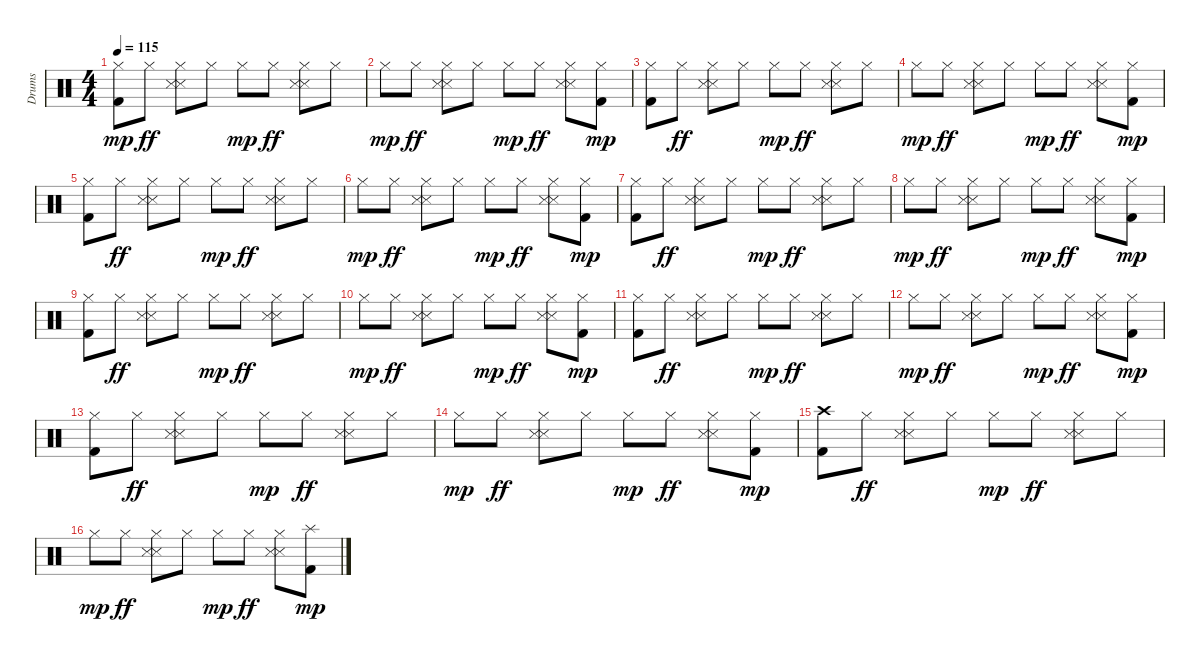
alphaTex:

\track ("Drums" "Drums") {instrument percussion}
\staff {score}
\articulation defaults
\ts (4 4)
\tempo 115
\clef neutral
\ks c
("Hi-Hat (closed)" "Kick (hit) 2").8{dy mp} "Hi-Hat (closed)".8{dy ff} ("Hi-Hat (closed)" "Snare (side stick) 3" "Snare (side stick) 3").8 "Hi-Hat (closed)".8 "Hi-Hat (closed)".8{dy mp} "Hi-Hat (closed)".8{dy ff} ("Hi-Hat (closed)" "Snare (side stick) 3" "Snare (side stick) 3").8 "Hi-Hat (closed)".8 |
"Hi-Hat (closed)".8{dy mp} "Hi-Hat (closed)".8{dy ff} ("Hi-Hat (closed)" "Snare (side stick) 3" "Snare (side stick) 3").8 "Hi-Hat (closed)".8 "Hi-Hat (closed)".8{dy mp} "Hi-Hat (closed)".8{dy ff} ("Hi-Hat (closed)" "Snare (side stick) 3" "Snare (side stick) 3").8 ("Hi-Hat (closed)" "Kick (hit) 2").8{dy mp} |
("Hi-Hat (closed)" "Kick (hit) 2").8 "Hi-Hat (closed)".8{dy ff} ("Hi-Hat (closed)" "Snare (side stick) 3" "Snare (side stick) 3").8 "Hi-Hat (closed)".8 "Hi-Hat (closed)".8{dy mp} "Hi-Hat (closed)".8{dy ff} ("Hi-Hat (closed)" "Snare (side stick) 3" "Snare (side stick) 3").8 "Hi-Hat (closed)".8 |
"Hi-Hat (closed)".8{dy mp} "Hi-Hat (closed)".8{dy ff} ("Hi-Hat (closed)" "Snare (side stick) 3" "Snare (side stick) 3").8 "Hi-Hat (closed)".8 "Hi-Hat (closed)".8{dy mp} "Hi-Hat (closed)".8{dy ff} ("Hi-Hat (closed)" "Snare (side stick) 3" "Snare (side stick) 3").8 ("Hi-Hat (closed)" "Kick (hit) 2").8{dy mp} |
("Hi-Hat (closed)" "Kick (hit) 2").8 "Hi-Hat (closed)".8{dy ff} ("Hi-Hat (closed)" "Snare (side stick) 3" "Snare (side stick) 3").8 "Hi-Hat (closed)".8 "Hi-Hat (closed)".8{dy mp} "Hi-Hat (closed)".8{dy ff} ("Hi-Hat (closed)" "Snare (side stick) 3" "Snare (side stick) 3").8 "Hi-Hat (closed)".8 |
"Hi-Hat (closed)".8{dy mp} "Hi-Hat (closed)".8{dy ff} ("Hi-Hat (closed)" "Snare (side stick) 3" "Snare (side stick) 3").8 "Hi-Hat (closed)".8 "Hi-Hat (closed)".8{dy mp} "Hi-Hat (closed)".8{dy ff} ("Hi-Hat (closed)" "Snare (side stick) 3" "Snare (side stick) 3").8 ("Hi-Hat (closed)" "Kick (hit) 2").8{dy mp} |
("Hi-Hat (closed)" "Kick (hit) 2").8 "Hi-Hat (closed)".8{dy ff} ("Hi-Hat (closed)" "Snare (side stick) 3" "Snare (side stick) 3").8 "Hi-Hat (closed)".8 "Hi-Hat (closed)".8{dy mp} "Hi-Hat (closed)".8{dy ff} ("Hi-Hat (closed)" "Snare (side stick) 3" "Snare (side stick) 3").8 "Hi-Hat (closed)".8 |
"Hi-Hat (closed)".8{dy mp} "Hi-Hat (closed)".8{dy ff} ("Hi-Hat (closed)" "Snare (side stick) 3" "Snare (side stick) 3").8 "Hi-Hat (closed)".8 "Hi-Hat (closed)".8{dy mp} "Hi-Hat (closed)".8{dy ff} ("Hi-Hat (closed)" "Snare (side stick) 3" "Snare (side stick) 3").8 ("Hi-Hat (closed)" "Kick (hit) 2").8{dy mp} |
("Hi-Hat (closed)" "Kick (hit) 2").8 "Hi-Hat (closed)".8{dy ff} ("Hi-Hat (closed)" "Snare (side stick) 3" "Snare (side stick) 3").8 "Hi-Hat (closed)".8 "Hi-Hat (closed)".8{dy mp} "Hi-Hat (closed)".8{dy ff} ("Hi-Hat (closed)" "Snare (side stick) 3" "Snare (side stick) 3").8 "Hi-Hat (closed)".8 |
"Hi-Hat (closed)".8{dy mp} "Hi-Hat (closed)".8{dy ff} ("Hi-Hat (closed)" "Snare (side stick) 3" "Snare (side stick) 3").8 "Hi-Hat (closed)".8 "Hi-Hat (closed)".8{dy mp} "Hi-Hat (closed)".8{dy ff} ("Hi-Hat (closed)" "Snare (side stick) 3" "Snare (side stick) 3").8 ("Hi-Hat (closed)" "Kick (hit) 2").8{dy mp} |
("Hi-Hat (closed)" "Kick (hit) 2").8 "Hi-Hat (closed)".8{dy ff} ("Hi-Hat (closed)" "Snare (side stick) 3" "Snare (side stick) 3").8 "Hi-Hat (closed)".8 "Hi-Hat (closed)".8{dy mp} "Hi-Hat (closed)".8{dy ff} ("Hi-Hat (closed)" "Snare (side stick) 3" "Snare (side stick) 3").8 "Hi-Hat (closed)".8 |
"Hi-Hat (closed)".8{dy mp} "Hi-Hat (closed)".8{dy ff} ("Hi-Hat (closed)" "Snare (side stick) 3" "Snare (side stick) 3").8 "Hi-Hat (closed)".8 "Hi-Hat (closed)".8{dy mp} "Hi-Hat (closed)".8{dy ff} ("Hi-Hat (closed)" "Snare (side stick) 3" "Snare (side stick) 3").8 ("Hi-Hat (closed)" "Kick (hit) 2").8{dy mp} |
("Hi-Hat (closed)" "Kick (hit) 2").8 "Hi-Hat (closed)".8{dy ff} ("Hi-Hat (closed)" "Snare (side stick) 3" "Snare (side stick) 3").8 "Hi-Hat (closed)".8 "Hi-Hat (closed)".8{dy mp} "Hi-Hat (closed)".8{dy ff} ("Hi-Hat (closed)" "Snare (side stick) 3" "Snare (side stick) 3").8 "Hi-Hat (closed)".8 |
"Hi-Hat (closed)".8{dy mp} "Hi-Hat (closed)".8{dy ff} ("Hi-Hat (closed)" "Snare (side stick) 3" "Snare (side stick) 3").8 "Hi-Hat (closed)".8 "Hi-Hat (closed)".8{dy mp} "Hi-Hat (closed)".8{dy ff} ("Hi-Hat (closed)" "Snare (side stick) 3" "Snare (side stick) 3").8 ("Hi-Hat (closed)" "Kick (hit) 2").8{dy mp} |
("Crash high (hit)" "Kick (hit) 2").8 "Hi-Hat (closed)".8{dy ff} ("Hi-Hat (closed)" "Snare (side stick) 3" "Snare (side stick) 3").8 "Hi-Hat (closed)".8 "Hi-Hat (closed)".8{dy mp} "Hi-Hat (closed)".8{dy ff} ("Hi-Hat (closed)" "Snare (side stick) 3" "Snare (side stick) 3").8 "Hi-Hat (closed)".8 |
"Hi-Hat (closed)".8{dy mp} "Hi-Hat (closed)".8{dy ff} ("Hi-Hat (closed)" "Snare (side stick) 3" "Snare (side stick) 3").8 "Hi-Hat (closed)".8 "Hi-Hat (closed)".8{dy mp} "Hi-Hat (closed)".8{dy ff} ("Hi-Hat (closed)" "Snare (side stick) 3" "Snare (side stick) 3").8 ("Splash (hit)" "Kick (hit) 2").8{dy mp}
